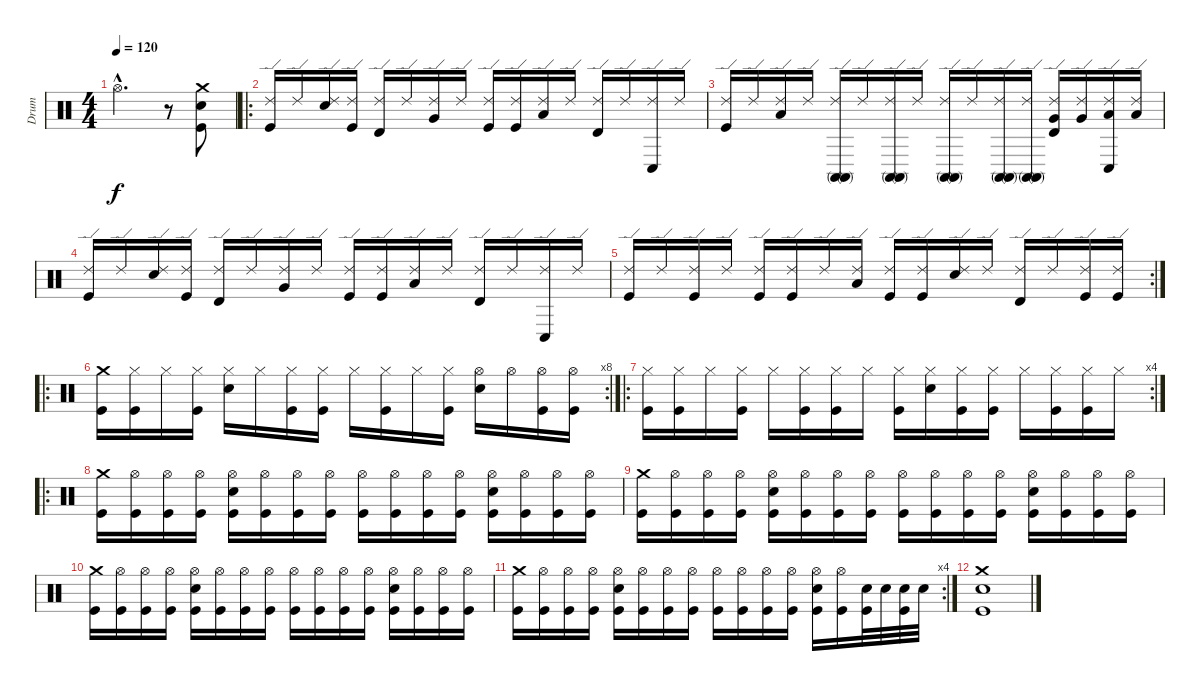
\track ("Drum" "Drum") {instrument percussion}
\staff {score}
\articulation defaults
\ts (4 4)
\tempo 120
\clef neutral
\ks c "Hi-Hat (open)"{hac}.2{d dy f}
r.8 ("Crash medium (hit)" "Snare (hit) 2" "Kick (hit)").8 |
\ro
("Ride (edge) 2" "Kick (hit)").16 "Ride (edge) 2".16 ("Ride (edge) 2" "Metronome (bell)").16 ("Ride (edge) 2" "Kick (hit)").16 ("Ride (edge) 2" "Timbale high (hit)").16 "Ride (edge) 2".16 ("Ride (edge) 2" "Very Low Tom (hit)").16 "Ride (edge) 2".16 ("Ride (edge) 2" "Kick (hit)").16 ("Ride (edge) 2" "Kick (hit)").16 ("Ride (edge) 2" "Low Floor Tom (hit)").16 "Ride (edge) 2".16 ("Ride (edge) 2" "Timbale high (hit)").16 "Ride (edge) 2".16 ("Ride (edge) 2" "Conga low (hit)").16 "Ride (edge) 2".16 |
("Ride (edge) 2" "Kick (hit)").16 "Ride (edge) 2".16 ("Ride (edge) 2" "Low Tom (hit)").16 "Ride (edge) 2".16 ("Ride (edge) 2" "Conga high (mute)" "Conga high (mute)").16 "Ride (edge) 2".16 ("Ride (edge) 2" "Conga high (mute)" "Conga high (mute)").16 "Ride (edge) 2".16 ("Ride (edge) 2" "Conga high (mute)" "Conga high (mute)").16 "Ride (edge) 2".16 ("Ride (edge) 2" "Conga high (mute)" "Conga high (mute)").16 ("Ride (edge) 2" "Conga high (mute)" "Conga high (mute)").16 ("Ride (edge) 2" "Timbale high (hit)" "Very Low Tom (hit)").16 ("Ride (edge) 2" "Very Low Tom (hit)").16 ("Ride (edge) 2" "Conga low (hit)" "Low Floor Tom (hit)").16 ("Ride (edge) 2" "Low Floor Tom (hit)").16 |
("Ride (edge) 2" "Kick (hit)").16 "Ride (edge) 2".16 ("Ride (edge) 2" "Metronome (bell)").16 ("Ride (edge) 2" "Kick (hit)").16 ("Ride (edge) 2" "Timbale high (hit)").16 "Ride (edge) 2".16 ("Ride (edge) 2" "Very Low Tom (hit)").16 "Ride (edge) 2".16 ("Ride (edge) 2" "Kick (hit)").16 ("Ride (edge) 2" "Kick (hit)").16 ("Ride (edge) 2" "Low Floor Tom (hit)").16 "Ride (edge) 2".16 ("Ride (edge) 2" "Timbale high (hit)").16 "Ride (edge) 2".16 ("Ride (edge) 2" "Conga low (hit)").16 "Ride (edge) 2".16 |
\rc 2
("Ride (edge) 2" "Kick (hit)").16 "Ride (edge) 2".16 ("Ride (edge) 2" "Kick (hit)").16 "Ride (edge) 2".16 ("Ride (edge) 2" "Kick (hit)").16 ("Ride (edge) 2" "Kick (hit)").16 "Ride (edge) 2".16 ("Ride (edge) 2" "Low Floor Tom (hit)").16 ("Ride (edge) 2" "Kick (hit)").16 ("Ride (edge) 2" "Kick (hit)").16 ("Ride (edge) 2" "Snare (hit) 2").16 "Ride (edge) 2".16 ("Ride (edge) 2" "Timbale high (hit)").16 "Ride (edge) 2".16 ("Ride (edge) 2" "Kick (hit)").16 ("Ride (edge) 2" "Kick (hit)").16 |
\ro
\rc 8
("Crash medium (hit)" "Kick (hit)").16 ("Hi-Hat (closed)" "Kick (hit)").16 "Hi-Hat (closed)".16 ("Hi-Hat (closed)" "Kick (hit)").16 ("Hi-Hat (closed)" "Snare (hit) 2").16 "Hi-Hat (closed)".16 ("Hi-Hat (closed)" "Kick (hit)").16 ("Hi-Hat (closed)" "Kick (hit)").16 "Hi-Hat (closed)".16 ("Hi-Hat (closed)" "Kick (hit)").16 "Hi-Hat (closed)".16 ("Hi-Hat (closed)" "Kick (hit)").16 ("Hi-Hat (open)" "Snare (hit) 2").16 "Hi-Hat (open)".16 ("Hi-Hat (open)" "Kick (hit)").16 ("Hi-Hat (open)" "Kick (hit)").16 |
\ro
\rc 4
("Hi-Hat (closed)" "Kick (hit)").16 ("Hi-Hat (closed)" "Kick (hit)").16 "Hi-Hat (closed)".16 ("Hi-Hat (closed)" "Kick (hit)").16 "Hi-Hat (closed)".16 ("Hi-Hat (closed)" "Kick (hit)").16 ("Hi-Hat (closed)" "Kick (hit)").16 "Hi-Hat (closed)".16 ("Hi-Hat (closed)" "Kick (hit)").16 ("Hi-Hat (closed)" "Snare (hit) 2").16 ("Hi-Hat (closed)" "Kick (hit)").16 ("Hi-Hat (closed)" "Kick (hit)").16 "Hi-Hat (closed)".16 ("Hi-Hat (closed)" "Kick (hit)").16 ("Hi-Hat (closed)" "Kick (hit)").16 "Hi-Hat (closed)".16 |
\ro
("Crash medium (hit)" "Kick (hit)").16 ("Hi-Hat (open)" "Kick (hit)").16 ("Hi-Hat (open)" "Kick (hit)").16 ("Hi-Hat (open)" "Kick (hit)").16 ("Hi-Hat (open)" "Snare (hit) 2" "Kick (hit)").16 ("Hi-Hat (open)" "Kick (hit)").16 ("Hi-Hat (open)" "Kick (hit)").16 ("Hi-Hat (open)" "Kick (hit)").16 ("Hi-Hat (open)" "Kick (hit)").16 ("Hi-Hat (open)" "Kick (hit)").16 ("Hi-Hat (open)" "Kick (hit)").16 ("Hi-Hat (open)" "Kick (hit)").16 ("Hi-Hat (open)" "Snare (hit) 2" "Kick (hit)").16 ("Hi-Hat (open)" "Kick (hit)").16 ("Hi-Hat (open)" "Kick (hit)").16 ("Hi-Hat (open)" "Kick (hit)").16 |
("Crash medium (hit)" "Kick (hit)").16 ("Hi-Hat (open)" "Kick (hit)").16 ("Hi-Hat (open)" "Kick (hit)").16 ("Hi-Hat (open)" "Kick (hit)").16 ("Hi-Hat (open)" "Snare (hit) 2" "Kick (hit)").16 ("Hi-Hat (open)" "Kick (hit)").16 ("Hi-Hat (open)" "Kick (hit)").16 ("Hi-Hat (open)" "Kick (hit)").16 ("Hi-Hat (open)" "Kick (hit)").16 ("Hi-Hat (open)" "Kick (hit)").16 ("Hi-Hat (open)" "Kick (hit)").16 ("Hi-Hat (open)" "Kick (hit)").16 ("Hi-Hat (open)" "Snare (hit) 2" "Kick (hit)").16 ("Hi-Hat (open)" "Kick (hit)").16 ("Hi-Hat (open)" "Kick (hit)").16 ("Hi-Hat (open)" "Kick (hit)").16 |
("Crash medium (hit)" "Kick (hit)").16 ("Hi-Hat (open)" "Kick (hit)").16 ("Hi-Hat (open)" "Kick (hit)").16 ("Hi-Hat (open)" "Kick (hit)").16 ("Hi-Hat (open)" "Snare (hit) 2" "Kick (hit)").16 ("Hi-Hat (open)" "Kick (hit)").16 ("Hi-Hat (open)" "Kick (hit)").16 ("Hi-Hat (open)" "Kick (hit)").16 ("Hi-Hat (open)" "Kick (hit)").16 ("Hi-Hat (open)" "Kick (hit)").16 ("Hi-Hat (open)" "Kick (hit)").16 ("Hi-Hat (open)" "Kick (hit)").16 ("Hi-Hat (open)" "Snare (hit) 2" "Kick (hit)").16 ("Hi-Hat (open)" "Kick (hit)").16 ("Hi-Hat (open)" "Kick (hit)").16 ("Hi-Hat (open)" "Kick (hit)").16 |
\rc 4
("Crash medium (hit)" "Kick (hit)").16 ("Hi-Hat (open)" "Kick (hit)").16 ("Hi-Hat (open)" "Kick (hit)").16 ("Hi-Hat (open)" "Kick (hit)").16 ("Hi-Hat (open)" "Snare (hit) 2" "Kick (hit)").16 ("Hi-Hat (open)" "Kick (hit)").16 ("Hi-Hat (open)" "Kick (hit)").16 ("Hi-Hat (open)" "Kick (hit)").16 ("Hi-Hat (open)" "Kick (hit)").16 ("Hi-Hat (open)" "Kick (hit)").16 ("Hi-Hat (open)" "Kick (hit)").16 ("Hi-Hat (open)" "Kick (hit)").16 ("Hi-Hat (open)" "Snare (hit) 2" "Kick (hit)").16 ("Hi-Hat (open)" "Kick (hit)").16 ("Snare (hit) 2" "Kick (hit)").32 "Snare (hit) 2".32 ("Snare (hit) 2" "Kick (hit)").32 "Snare (hit) 2".32 |
("Crash medium (hit)" "Snare (hit) 2" "Kick (hit)").1
